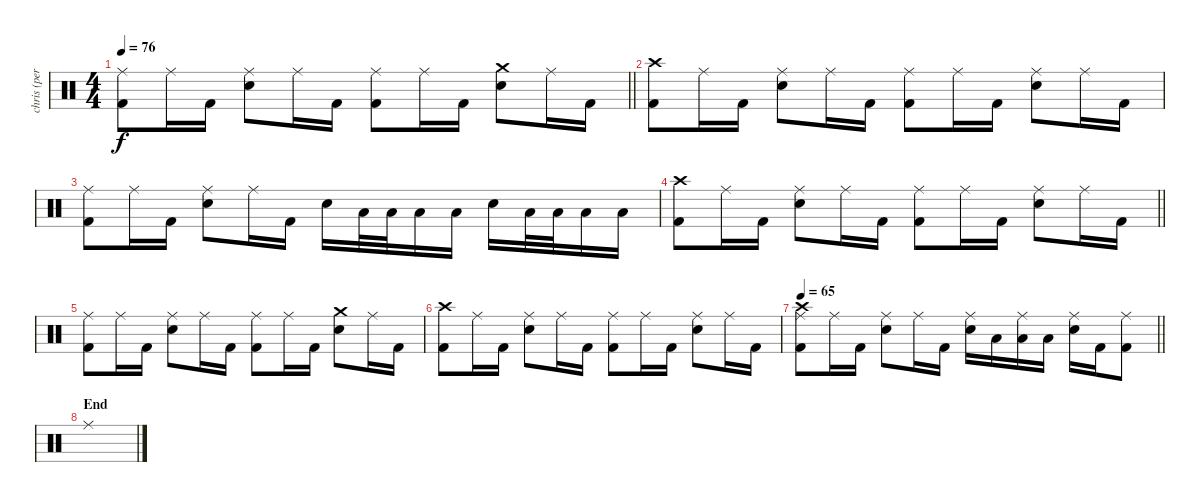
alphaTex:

\track ("chris (percussion)" "chris (per") {instrument percussion}
\staff {score}
\articulation defaults
\ts (4 4)
\tempo 76
\clef neutral
\barLineRight lightlight
\ks c
("Ride (middle)" "Kick (hit) 2").8{dy f} "Ride (middle)".16 "Kick (hit) 2".16 ("Ride (middle)" "Electric Snare (hit)").8 "Ride (middle)".16 "Kick (hit) 2".16 ("Ride (middle)" "Kick (hit) 2").8 "Ride (middle)".16 "Kick (hit) 2".16 ("Crash medium (hit)" "Electric Snare (hit)").8 "Ride (middle)".16 "Kick (hit) 2".16 |
("Crash high (hit)" "Kick (hit) 2").8 "Ride (middle)".16 "Kick (hit) 2".16 ("Ride (middle)" "Electric Snare (hit)").8 "Ride (middle)".16 "Kick (hit) 2".16 ("Ride (middle)" "Kick (hit) 2").8 "Ride (middle)".16 "Kick (hit) 2".16 ("Ride (middle)" "Electric Snare (hit)").8 "Ride (middle)".16 "Kick (hit) 2".16 |
("Ride (middle)" "Kick (hit) 2").8 "Ride (middle)".16 "Kick (hit) 2".16 ("Ride (middle)" "Electric Snare (hit)").8 "Ride (middle)".16 "Kick (hit) 2".16 "Electric Snare (hit)".16 "Low Floor Tom (hit)".32 "Low Floor Tom (hit)".32 "Low Floor Tom (hit)".16 "Low Floor Tom (hit)".16 "Electric Snare (hit)".16 "Low Floor Tom (hit)".32 "Low Floor Tom (hit)".32 "Low Floor Tom (hit)".16 "Low Floor Tom (hit)".16 |
\barLineRight lightlight
("Crash high (hit)" "Kick (hit) 2").8 "Ride (middle)".16 "Kick (hit) 2".16 ("Electric Snare (hit)" "Ride (middle)").8 "Ride (middle)".16 "Kick (hit) 2".16 ("Ride (middle)" "Kick (hit) 2").8 "Ride (middle)".16 "Kick (hit) 2".16 ("Electric Snare (hit)" "Ride (middle)").8 "Ride (middle)".16 "Kick (hit) 2".16 |
("Ride (middle)" "Kick (hit) 2").8 "Ride (middle)".16 "Kick (hit) 2".16 ("Ride (middle)" "Electric Snare (hit)").8 "Ride (middle)".16 "Kick (hit) 2".16 ("Ride (middle)" "Kick (hit) 2").8 "Ride (middle)".16 "Kick (hit) 2".16 ("Crash medium (hit)" "Electric Snare (hit)").8 "Ride (middle)".16 "Kick (hit) 2".16 |
("Crash high (hit)" "Kick (hit) 2").8 "Ride (middle)".16 "Kick (hit) 2".16 ("Ride (middle)" "Electric Snare (hit)").8 "Ride (middle)".16 "Kick (hit) 2".16 ("Ride (middle)" "Kick (hit) 2").8 "Ride (middle)".16 "Kick (hit) 2".16 ("Ride (middle)" "Electric Snare (hit)").8 "Ride (middle)".16 "Kick (hit) 2".16 |
\tempo 65
\barLineRight lightlight
("Crash high (hit)" "Ride (middle)" "Kick (hit) 2").8 "Ride (middle)".16 "Kick (hit) 2".16 ("Ride (middle)" "Electric Snare (hit)").8 "Ride (middle)".16 "Kick (hit) 2".16 ("Ride (middle)" "Electric Snare (hit)").16 "Low Floor Tom (hit)".16 ("Ride (middle)" "Low Floor Tom (hit)").16 "Low Floor Tom (hit)".16 ("Ride (middle)" "Electric Snare (hit)").16 "Kick (hit) 2".16 ("Ride (middle)" "Kick (hit) 2").8 |
\section ("" "End")
"Ride (middle)".1
